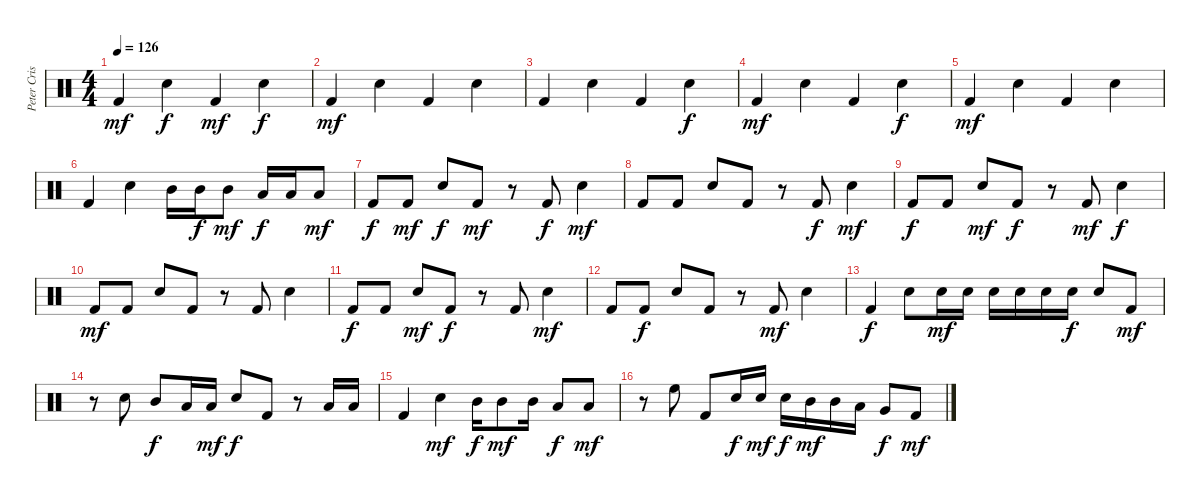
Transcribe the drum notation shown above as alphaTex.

\track ("Peter Criss" "Peter Cris") {instrument percussion}
\staff {score}
\articulation defaults
\ts (4 4)
\tempo 126
\clef neutral
\ks c "Kick (hit) 2".4{dy mf} "Electric Snare (hit)".4{dy f} "Kick (hit) 2".4{dy mf} "Electric Snare (hit)".4{dy f}
|
"Kick (hit) 2".4{dy mf} "Electric Snare (hit)".4 "Kick (hit) 2".4 "Electric Snare (hit)".4 |
"Kick (hit) 2".4 "Electric Snare (hit)".4 "Kick (hit) 2".4 "Electric Snare (hit)".4{dy f} |
"Kick (hit) 2".4{dy mf} "Electric Snare (hit)".4 "Kick (hit) 2".4 "Electric Snare (hit)".4{dy f} |
"Kick (hit) 2".4{dy mf} "Electric Snare (hit)".4 "Kick (hit) 2".4 "Electric Snare (hit)".4 |
"Kick (hit) 2".4 "Electric Snare (hit)".4 "Mid Tom (hit)".16 "Mid Tom (hit)".16{dy f} "Mid Tom (hit)".8{dy mf} "Low Tom (hit)".16{dy f} "Low Tom (hit)".16 "Low Tom (hit)".8{dy mf} |
"Kick (hit) 2".8{dy f} "Kick (hit) 2".8{dy mf} "Electric Snare (hit)".8{dy f} "Kick (hit) 2".8{dy mf} r.8 "Kick (hit) 2".8{dy f} "Electric Snare (hit)".4{dy mf} |
"Kick (hit) 2".8 "Kick (hit) 2".8 "Electric Snare (hit)".8 "Kick (hit) 2".8 r.8 "Kick (hit) 2".8{dy f} "Electric Snare (hit)".4{dy mf} |
"Kick (hit) 2".8{dy f} "Kick (hit) 2".8 "Electric Snare (hit)".8{dy mf} "Kick (hit) 2".8{dy f} r.8 "Kick (hit) 2".8{dy mf} "Electric Snare (hit)".4{dy f} |
"Kick (hit) 2".8{dy mf} "Kick (hit) 2".8 "Electric Snare (hit)".8 "Kick (hit) 2".8 r.8 "Kick (hit) 2".8 "Electric Snare (hit)".4 |
"Kick (hit) 2".8{dy f} "Kick (hit) 2".8 "Electric Snare (hit)".8{dy mf} "Kick (hit) 2".8{dy f} r.8 "Kick (hit) 2".8 "Electric Snare (hit)".4{dy mf} |
"Kick (hit) 2".8 "Kick (hit) 2".8{dy f} "Electric Snare (hit)".8 "Kick (hit) 2".8 r.8 "Kick (hit) 2".8{dy mf} "Electric Snare (hit)".4 |
"Kick (hit) 2".4{dy f} "Electric Snare (hit)".8 "Electric Snare (hit)".16{dy mf} "Electric Snare (hit)".16 "Electric Snare (hit)".16 "Electric Snare (hit)".16 "Electric Snare (hit)".16 "Electric Snare (hit)".16{dy f} "Electric Snare (hit)".8 "Kick (hit) 2".8{dy mf} |
r.8 "Electric Snare (hit)".8 "Mid Tom (hit)".8{dy f} "Low Tom (hit)".16 "Low Tom (hit)".16{dy mf} "Electric Snare (hit)".8{dy f} "Kick (hit) 2".8 r.8 "Low Tom (hit)".16 "Low Tom (hit)".16 |
"Kick (hit) 2".4 "Electric Snare (hit)".4{dy mf} "Mid Tom (hit)".16{dy f} "Mid Tom (hit)".8{dy mf} "Mid Tom (hit)".16 "Low Tom (hit)".8{dy f} "Low Floor Tom (hit)".8{dy mf} |
r.8 "High Floor Tom (hit)".8 "Kick (hit) 2".8 "Electric Snare (hit)".16{dy f} "Electric Snare (hit)".16{dy mf} "Electric Snare (hit)".16{dy f} "Mid Tom (hit)".16{dy mf} "Mid Tom (hit)".16 "Low Tom (hit)".16 "Very Low Tom (hit)".8{dy f} "Kick (hit) 2".8{dy mf}
